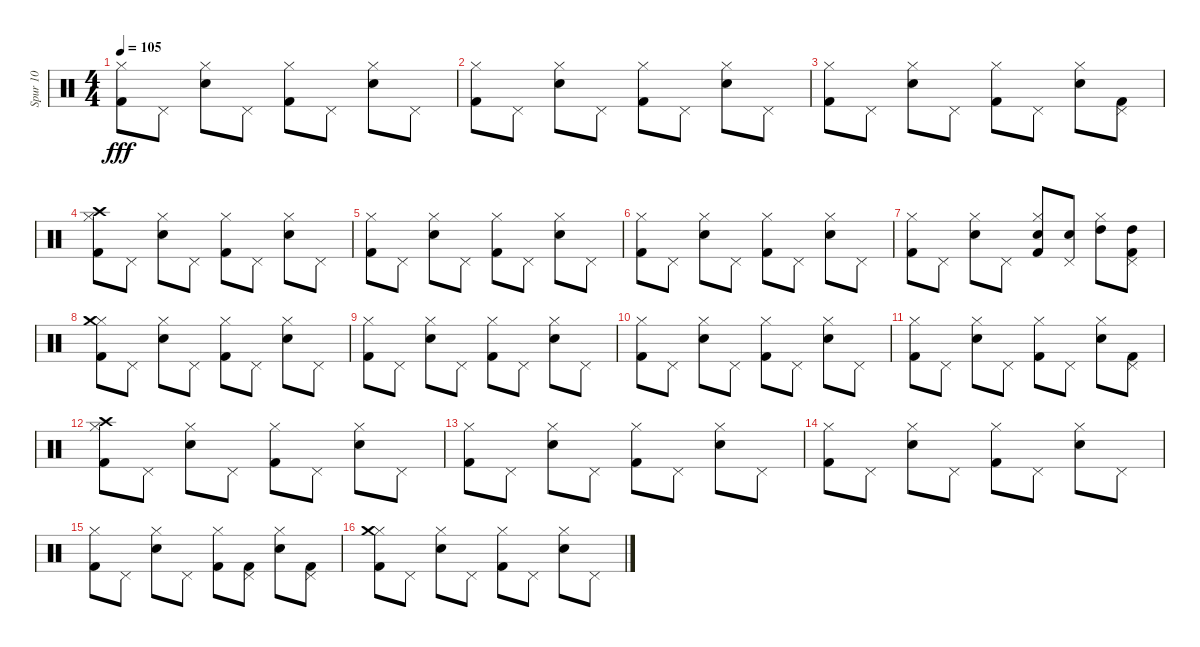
\track ("Spur 10" "Spur 10") {instrument percussion}
\staff {score}
\articulation defaults
\ts (4 4)
\tempo 105
\clef neutral
\ks c
("Kick (hit) 2" "Hi-Hat (closed)").8{dy fff} "Pedal Hi-Hat (hit)".8 ("Electric Snare (hit)" "Hi-Hat (closed)").8 "Pedal Hi-Hat (hit)".8 ("Hi-Hat (closed)" "Kick (hit) 2").8 "Pedal Hi-Hat (hit)".8 ("Electric Snare (hit)" "Hi-Hat (closed)").8 "Pedal Hi-Hat (hit)".8 |
("Kick (hit) 2" "Hi-Hat (closed)").8 "Pedal Hi-Hat (hit)".8 ("Electric Snare (hit)" "Hi-Hat (closed)").8 "Pedal Hi-Hat (hit)".8 ("Kick (hit) 2" "Hi-Hat (closed)").8 "Pedal Hi-Hat (hit)".8 ("Electric Snare (hit)" "Hi-Hat (closed)").8 "Pedal Hi-Hat (hit)".8 |
("Kick (hit) 2" "Hi-Hat (closed)").8 "Pedal Hi-Hat (hit)".8 ("Electric Snare (hit)" "Hi-Hat (closed)").8 "Pedal Hi-Hat (hit)".8 ("Hi-Hat (closed)" "Kick (hit) 2").8 "Pedal Hi-Hat (hit)".8 ("Electric Snare (hit)" "Hi-Hat (closed)").8 ("Pedal Hi-Hat (hit)" "Kick (hit) 2").8 |
("Hi-Hat (closed)" "Crash high (hit)" "Kick (hit) 2").8 "Pedal Hi-Hat (hit)".8 ("Hi-Hat (closed)" "Electric Snare (hit)").8 "Pedal Hi-Hat (hit)".8 ("Hi-Hat (closed)" "Kick (hit) 2").8 "Pedal Hi-Hat (hit)".8 ("Electric Snare (hit)" "Hi-Hat (closed)").8 "Pedal Hi-Hat (hit)".8 |
("Kick (hit) 2" "Hi-Hat (closed)").8 "Pedal Hi-Hat (hit)".8 ("Electric Snare (hit)" "Hi-Hat (closed)").8 "Pedal Hi-Hat (hit)".8 ("Hi-Hat (closed)" "Kick (hit) 2").8 "Pedal Hi-Hat (hit)".8 ("Electric Snare (hit)" "Hi-Hat (closed)").8 "Pedal Hi-Hat (hit)".8 |
("Kick (hit) 2" "Hi-Hat (closed)").8 "Pedal Hi-Hat (hit)".8 ("Electric Snare (hit)" "Hi-Hat (closed)").8 "Pedal Hi-Hat (hit)".8 ("Kick (hit) 2" "Hi-Hat (closed)").8 "Pedal Hi-Hat (hit)".8 ("Electric Snare (hit)" "Hi-Hat (closed)").8 "Pedal Hi-Hat (hit)".8 |
("Kick (hit) 2" "Hi-Hat (closed)").8 "Pedal Hi-Hat (hit)".8 ("Electric Snare (hit)" "Hi-Hat (closed)").8 "Pedal Hi-Hat (hit)".8 ("Electric Snare (hit)" "Hi-Hat (closed)" "Kick (hit) 2").8 ("Electric Snare (hit)" "Pedal Hi-Hat (hit)").8 ("High Tom (hit)" "Hi-Hat (closed)").8 ("High Tom (hit)" "Pedal Hi-Hat (hit)" "Kick (hit) 2").8 |
("Hi-Hat (closed)" "Crash medium (hit)" "Kick (hit) 2").8 "Pedal Hi-Hat (hit)".8 ("Hi-Hat (closed)" "Electric Snare (hit)").8 "Pedal Hi-Hat (hit)".8 ("Hi-Hat (closed)" "Kick (hit) 2").8 "Pedal Hi-Hat (hit)".8 ("Electric Snare (hit)" "Hi-Hat (closed)").8 "Pedal Hi-Hat (hit)".8 |
("Kick (hit) 2" "Hi-Hat (closed)").8 "Pedal Hi-Hat (hit)".8 ("Electric Snare (hit)" "Hi-Hat (closed)").8 "Pedal Hi-Hat (hit)".8 ("Hi-Hat (closed)" "Kick (hit) 2").8 "Pedal Hi-Hat (hit)".8 ("Electric Snare (hit)" "Hi-Hat (closed)").8 "Pedal Hi-Hat (hit)".8 |
("Kick (hit) 2" "Hi-Hat (closed)").8 "Pedal Hi-Hat (hit)".8 ("Electric Snare (hit)" "Hi-Hat (closed)").8 "Pedal Hi-Hat (hit)".8 ("Kick (hit) 2" "Hi-Hat (closed)").8 "Pedal Hi-Hat (hit)".8 ("Electric Snare (hit)" "Hi-Hat (closed)").8 "Pedal Hi-Hat (hit)".8 |
("Kick (hit) 2" "Hi-Hat (closed)").8 "Pedal Hi-Hat (hit)".8 ("Electric Snare (hit)" "Hi-Hat (closed)").8 "Pedal Hi-Hat (hit)".8 ("Hi-Hat (closed)" "Kick (hit) 2").8 "Pedal Hi-Hat (hit)".8 ("Electric Snare (hit)" "Hi-Hat (closed)").8 ("Pedal Hi-Hat (hit)" "Kick (hit) 2").8 |
("Hi-Hat (closed)" "Crash high (hit)" "Kick (hit) 2").8 "Pedal Hi-Hat (hit)".8 ("Hi-Hat (closed)" "Electric Snare (hit)").8 "Pedal Hi-Hat (hit)".8 ("Hi-Hat (closed)" "Kick (hit) 2").8 "Pedal Hi-Hat (hit)".8 ("Electric Snare (hit)" "Hi-Hat (closed)").8 "Pedal Hi-Hat (hit)".8 |
("Kick (hit) 2" "Hi-Hat (closed)").8 "Pedal Hi-Hat (hit)".8 ("Electric Snare (hit)" "Hi-Hat (closed)").8 "Pedal Hi-Hat (hit)".8 ("Hi-Hat (closed)" "Kick (hit) 2").8 "Pedal Hi-Hat (hit)".8 ("Electric Snare (hit)" "Hi-Hat (closed)").8 "Pedal Hi-Hat (hit)".8 |
("Kick (hit) 2" "Hi-Hat (closed)").8 "Pedal Hi-Hat (hit)".8 ("Electric Snare (hit)" "Hi-Hat (closed)").8 "Pedal Hi-Hat (hit)".8 ("Kick (hit) 2" "Hi-Hat (closed)").8 "Pedal Hi-Hat (hit)".8 ("Electric Snare (hit)" "Hi-Hat (closed)").8 "Pedal Hi-Hat (hit)".8 |
("Kick (hit) 2" "Hi-Hat (closed)").8 "Pedal Hi-Hat (hit)".8 ("Electric Snare (hit)" "Hi-Hat (closed)").8 "Pedal Hi-Hat (hit)".8 ("Hi-Hat (closed)" "Kick (hit) 2").8 ("Kick (hit) 2" "Pedal Hi-Hat (hit)").8 ("Electric Snare (hit)" "Hi-Hat (closed)").8 ("Pedal Hi-Hat (hit)" "Kick (hit) 2").8 |
("Hi-Hat (closed)" "Crash medium (hit)" "Kick (hit) 2").8 "Pedal Hi-Hat (hit)".8 ("Hi-Hat (closed)" "Electric Snare (hit)").8 "Pedal Hi-Hat (hit)".8 ("Hi-Hat (closed)" "Kick (hit) 2").8 "Pedal Hi-Hat (hit)".8 ("Electric Snare (hit)" "Hi-Hat (closed)").8 "Pedal Hi-Hat (hit)".8
